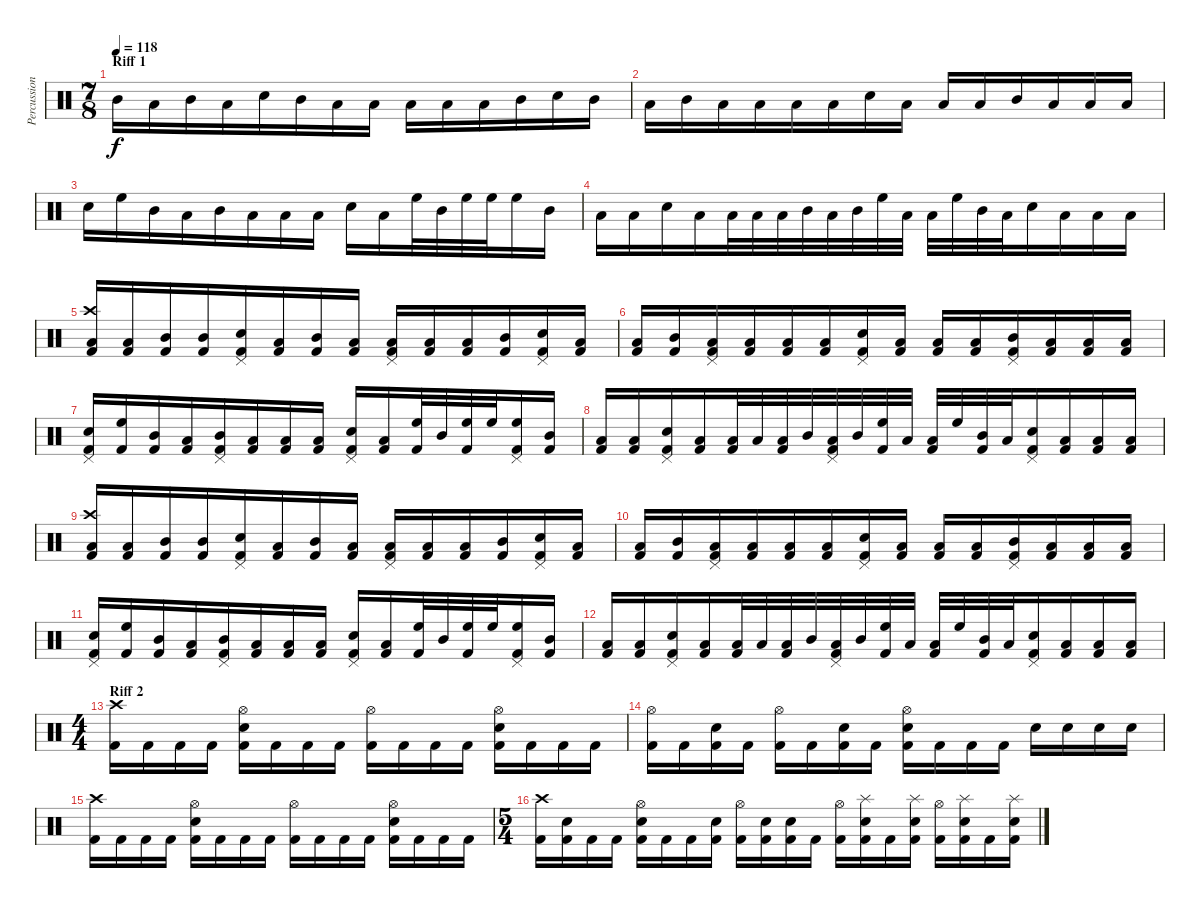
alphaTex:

\track ("Percussion" "Percussion") {instrument percussion}
\staff {score}
\articulation defaults
\ts (7 8)
\section ("" "Riff 1")
\tempo 118
\clef neutral
\ks c "Mid Tom (hit)".16{dy f} "Low Tom (hit)".16 "Mid Tom (hit)".16 "Low Tom (hit)".16 "Electric Snare (hit)".16 "Mid Tom (hit)".16 "Low Tom (hit)".16 "Low Floor Tom (hit)".16 "Low Tom (hit)".16 "Low Floor Tom (hit)".16 "Low Tom (hit)".16 "Mid Tom (hit)".16 "Electric Snare (hit)".16 "Mid Tom (hit)".16
|
"Low Tom (hit)".16 "Mid Tom (hit)".16 "Low Tom (hit)".16 "Low Floor Tom (hit)".16 "Low Tom (hit)".16 "Low Floor Tom (hit)".16 "Electric Snare (hit)".16 "Low Tom (hit)".16 "Low Floor Tom (hit)".16 "Low Tom (hit)".16 "Mid Tom (hit)".16 "Low Tom (hit)".16 "Low Floor Tom (hit)".16 "Low Tom (hit)".16 |
"Electric Snare (hit)".16 "High Floor Tom (hit)".16 "Mid Tom (hit)".16 "Low Tom (hit)".16 "Mid Tom (hit)".16 "Low Tom (hit)".16 "Low Floor Tom (hit)".16 "Low Tom (hit)".16 "Electric Snare (hit)".16 "Low Floor Tom (hit)".16 "High Floor Tom (hit)".32 "Mid Tom (hit)".32 "High Floor Tom (hit)".32 "High Floor Tom (hit)".32 "High Floor Tom (hit)".16 "Mid Tom (hit)".16 |
"Low Tom (hit)".16 "Low Tom (hit)".16 "Electric Snare (hit)".16 "Low Tom (hit)".16 "Low Tom (hit)".32 "Low Floor Tom (hit)".32 "Low Tom (hit)".32 "Mid Tom (hit)".32 "Low Tom (hit)".32 "Mid Tom (hit)".32 "High Floor Tom (hit)".32 "Low Tom (hit)".32 "Low Floor Tom (hit)".32 "High Floor Tom (hit)".32 "Mid Tom (hit)".32 "Low Tom (hit)".32 "Electric Snare (hit)".16 "Low Tom (hit)".16 "Low Floor Tom (hit)".16 "Low Tom (hit)".16 |
("Crash high (hit)" "Low Floor Tom (hit)" "Kick (hit) 2").16 ("Low Tom (hit)" "Kick (hit) 2").16 ("Mid Tom (hit)" "Kick (hit) 2").16 ("Mid Tom (hit)" "Kick (hit) 2").16 ("Pedal Hi-Hat (hit)" "Electric Snare (hit)" "Kick (hit) 2").16 ("Low Tom (hit)" "Kick (hit) 2").16 ("Mid Tom (hit)" "Kick (hit) 2").16 ("Low Tom (hit)" "Kick (hit) 2").16 ("Pedal Hi-Hat (hit)" "Low Floor Tom (hit)" "Kick (hit) 2").16 ("Low Tom (hit)" "Kick (hit) 2").16 ("Low Floor Tom (hit)" "Kick (hit) 2").16 ("Mid Tom (hit)" "Kick (hit) 2").16 ("Pedal Hi-Hat (hit)" "Electric Snare (hit)" "Kick (hit) 2").16 ("Low Tom (hit)" "Kick (hit) 2").16 |
("Low Tom (hit)" "Kick (hit) 2").16 ("Mid Tom (hit)" "Kick (hit) 2").16 ("Pedal Hi-Hat (hit)" "Low Tom (hit)" "Kick (hit) 2").16 ("Low Floor Tom (hit)" "Kick (hit) 2").16 ("Low Tom (hit)" "Kick (hit) 2").16 ("Low Floor Tom (hit)" "Kick (hit) 2").16 ("Pedal Hi-Hat (hit)" "Electric Snare (hit)" "Kick (hit) 2").16 ("Low Tom (hit)" "Kick (hit) 2").16 ("Low Floor Tom (hit)" "Kick (hit) 2").16 ("Low Tom (hit)" "Kick (hit) 2").16 ("Pedal Hi-Hat (hit)" "Mid Tom (hit)" "Kick (hit) 2").16 ("Low Tom (hit)" "Kick (hit) 2").16 ("Low Floor Tom (hit)" "Kick (hit) 2").16 ("Low Tom (hit)" "Kick (hit) 2").16 |
("Pedal Hi-Hat (hit)" "Electric Snare (hit)" "Kick (hit) 2").16 ("High Floor Tom (hit)" "Kick (hit) 2").16 ("Mid Tom (hit)" "Kick (hit) 2").16 ("Low Tom (hit)" "Kick (hit) 2").16 ("Pedal Hi-Hat (hit)" "Mid Tom (hit)" "Kick (hit) 2").16 ("Low Tom (hit)" "Kick (hit) 2").16 ("Low Floor Tom (hit)" "Kick (hit) 2").16 ("Low Tom (hit)" "Kick (hit) 2").16 ("Pedal Hi-Hat (hit)" "Electric Snare (hit)" "Kick (hit) 2").16 ("Low Floor Tom (hit)" "Kick (hit) 2").16 ("High Floor Tom (hit)" "Kick (hit) 2").32 "Mid Tom (hit)".32 ("High Floor Tom (hit)" "Kick (hit) 2").32 "High Floor Tom (hit)".32 ("Pedal Hi-Hat (hit)" "High Floor Tom (hit)" "Kick (hit) 2").16 ("Mid Tom (hit)" "Kick (hit) 2").16 |
("Low Tom (hit)" "Kick (hit) 2").16 ("Low Tom (hit)" "Kick (hit) 2").16 ("Pedal Hi-Hat (hit)" "Electric Snare (hit)" "Kick (hit) 2").16 ("Low Tom (hit)" "Kick (hit) 2").16 ("Low Tom (hit)" "Kick (hit) 2").32 "Low Floor Tom (hit)".32 ("Low Tom (hit)" "Kick (hit) 2").32 "Mid Tom (hit)".32 ("Pedal Hi-Hat (hit)" "Low Tom (hit)" "Kick (hit) 2").32 "Mid Tom (hit)".32 ("High Floor Tom (hit)" "Kick (hit) 2").32 "Low Tom (hit)".32 ("Low Floor Tom (hit)" "Kick (hit) 2").32 "High Floor Tom (hit)".32 ("Mid Tom (hit)" "Kick (hit) 2").32 "Low Tom (hit)".32 ("Pedal Hi-Hat (hit)" "Electric Snare (hit)" "Kick (hit) 2").16 ("Low Tom (hit)" "Kick (hit) 2").16 ("Low Floor Tom (hit)" "Kick (hit) 2").16 ("Low Tom (hit)" "Kick (hit) 2").16 |
("Crash high (hit)" "Low Floor Tom (hit)" "Kick (hit) 2").16 ("Low Tom (hit)" "Kick (hit) 2").16 ("Mid Tom (hit)" "Kick (hit) 2").16 ("Mid Tom (hit)" "Kick (hit) 2").16 ("Pedal Hi-Hat (hit)" "Electric Snare (hit)" "Kick (hit) 2").16 ("Low Tom (hit)" "Kick (hit) 2").16 ("Mid Tom (hit)" "Kick (hit) 2").16 ("Low Tom (hit)" "Kick (hit) 2").16 ("Pedal Hi-Hat (hit)" "Low Floor Tom (hit)" "Kick (hit) 2").16 ("Low Tom (hit)" "Kick (hit) 2").16 ("Low Floor Tom (hit)" "Kick (hit) 2").16 ("Mid Tom (hit)" "Kick (hit) 2").16 ("Pedal Hi-Hat (hit)" "Electric Snare (hit)" "Kick (hit) 2").16 ("Low Tom (hit)" "Kick (hit) 2").16 |
("Low Tom (hit)" "Kick (hit) 2").16 ("Mid Tom (hit)" "Kick (hit) 2").16 ("Pedal Hi-Hat (hit)" "Low Tom (hit)" "Kick (hit) 2").16 ("Low Floor Tom (hit)" "Kick (hit) 2").16 ("Low Tom (hit)" "Kick (hit) 2").16 ("Low Floor Tom (hit)" "Kick (hit) 2").16 ("Pedal Hi-Hat (hit)" "Electric Snare (hit)" "Kick (hit) 2").16 ("Low Tom (hit)" "Kick (hit) 2").16 ("Low Floor Tom (hit)" "Kick (hit) 2").16 ("Low Tom (hit)" "Kick (hit) 2").16 ("Pedal Hi-Hat (hit)" "Mid Tom (hit)" "Kick (hit) 2").16 ("Low Tom (hit)" "Kick (hit) 2").16 ("Low Floor Tom (hit)" "Kick (hit) 2").16 ("Low Tom (hit)" "Kick (hit) 2").16 |
("Pedal Hi-Hat (hit)" "Electric Snare (hit)" "Kick (hit) 2").16 ("High Floor Tom (hit)" "Kick (hit) 2").16 ("Mid Tom (hit)" "Kick (hit) 2").16 ("Low Tom (hit)" "Kick (hit) 2").16 ("Pedal Hi-Hat (hit)" "Mid Tom (hit)" "Kick (hit) 2").16 ("Low Tom (hit)" "Kick (hit) 2").16 ("Low Floor Tom (hit)" "Kick (hit) 2").16 ("Low Tom (hit)" "Kick (hit) 2").16 ("Pedal Hi-Hat (hit)" "Electric Snare (hit)" "Kick (hit) 2").16 ("Low Floor Tom (hit)" "Kick (hit) 2").16 ("High Floor Tom (hit)" "Kick (hit) 2").32 "Mid Tom (hit)".32 ("High Floor Tom (hit)" "Kick (hit) 2").32 "High Floor Tom (hit)".32 ("Pedal Hi-Hat (hit)" "High Floor Tom (hit)" "Kick (hit) 2").16 ("Mid Tom (hit)" "Kick (hit) 2").16 |
("Low Tom (hit)" "Kick (hit) 2").16 ("Low Tom (hit)" "Kick (hit) 2").16 ("Pedal Hi-Hat (hit)" "Electric Snare (hit)" "Kick (hit) 2").16 ("Low Tom (hit)" "Kick (hit) 2").16 ("Low Tom (hit)" "Kick (hit) 2").32 "Low Floor Tom (hit)".32 ("Low Tom (hit)" "Kick (hit) 2").32 "Mid Tom (hit)".32 ("Pedal Hi-Hat (hit)" "Low Tom (hit)" "Kick (hit) 2").32 "Mid Tom (hit)".32 ("High Floor Tom (hit)" "Kick (hit) 2").32 "Low Tom (hit)".32 ("Low Floor Tom (hit)" "Kick (hit) 2").32 "High Floor Tom (hit)".32 ("Mid Tom (hit)" "Kick (hit) 2").32 "Low Tom (hit)".32 ("Pedal Hi-Hat (hit)" "Electric Snare (hit)" "Kick (hit) 2").16 ("Low Tom (hit)" "Kick (hit) 2").16 ("Low Floor Tom (hit)" "Kick (hit) 2").16 ("Low Tom (hit)" "Kick (hit) 2").16 |
\ts (4 4)
\section ("" "Riff 2")
("Crash high (hit)" "Kick (hit) 2").16 "Kick (hit) 2".16 "Kick (hit) 2".16 "Kick (hit) 2".16 ("Hi-Hat (open)" "Electric Snare (hit)" "Kick (hit) 2").16 "Kick (hit) 2".16 "Kick (hit) 2".16 "Kick (hit) 2".16 ("Hi-Hat (open)" "Kick (hit) 2").16 "Kick (hit) 2".16 "Kick (hit) 2".16 "Kick (hit) 2".16 ("Hi-Hat (open)" "Electric Snare (hit)" "Kick (hit) 2").16 "Kick (hit) 2".16 "Kick (hit) 2".16 "Kick (hit) 2".16 |
("Hi-Hat (open)" "Kick (hit) 2").16 "Kick (hit) 2".16 ("Electric Snare (hit)" "Kick (hit) 2").16 "Kick (hit) 2".16 ("Hi-Hat (open)" "Kick (hit) 2").16 "Kick (hit) 2".16 ("Electric Snare (hit)" "Kick (hit) 2").16 "Kick (hit) 2".16 ("Hi-Hat (open)" "Electric Snare (hit)" "Kick (hit) 2").16 "Kick (hit) 2".16 "Kick (hit) 2".16 "Kick (hit) 2".16 "Electric Snare (hit)".16 "Electric Snare (hit)".16 "Electric Snare (hit)".16 "Electric Snare (hit)".16 |
("Crash high (hit)" "Kick (hit) 2").16 "Kick (hit) 2".16 "Kick (hit) 2".16 "Kick (hit) 2".16 ("Hi-Hat (open)" "Electric Snare (hit)" "Kick (hit) 2").16 "Kick (hit) 2".16 "Kick (hit) 2".16 "Kick (hit) 2".16 ("Hi-Hat (open)" "Kick (hit) 2").16 "Kick (hit) 2".16 "Kick (hit) 2".16 "Kick (hit) 2".16 ("Hi-Hat (open)" "Electric Snare (hit)" "Kick (hit) 2").16 "Kick (hit) 2".16 "Kick (hit) 2".16 "Kick (hit) 2".16 |
\ts (5 4)
("Crash high (hit)" "Kick (hit) 2").16 ("Electric Snare (hit)" "Kick (hit) 2").16 "Kick (hit) 2".16 "Kick (hit) 2".16 ("Hi-Hat (open)" "Electric Snare (hit)" "Kick (hit) 2").16 "Kick (hit) 2".16 "Kick (hit) 2".16 ("Electric Snare (hit)" "Kick (hit) 2").16 ("Hi-Hat (open)" "Kick (hit) 2").16 ("Electric Snare (hit)" "Kick (hit) 2").16 ("Electric Snare (hit)" "Kick (hit) 2").16 "Kick (hit) 2".16 ("Hi-Hat (open)" "Kick (hit) 2").16 ("Splash (hit)" "Electric Snare (hit)" "Kick (hit) 2").16 "Kick (hit) 2".16 ("Splash (hit)" "Electric Snare (hit)" "Kick (hit) 2").16 ("Hi-Hat (open)" "Kick (hit) 2").16 ("Splash (hit)" "Electric Snare (hit)" "Kick (hit) 2").16 "Kick (hit) 2".16 ("Splash (hit)" "Electric Snare (hit)" "Kick (hit) 2").16
